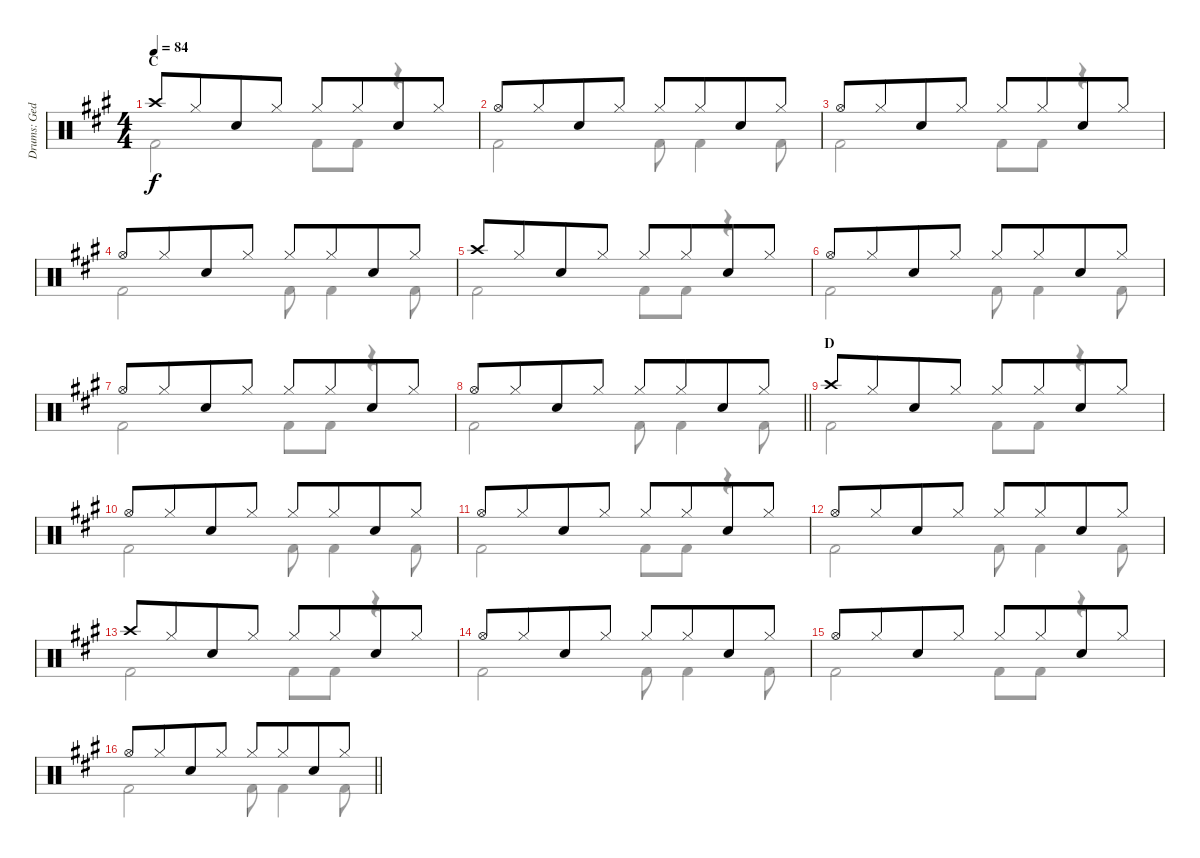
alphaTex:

\track ("Drums: Ged Lynch" "Drums: Ged") {instrument percussion}
\staff {score}
\articulation defaults
\voice
\ts (4 4)
\section ("" "C")
\tempo 84
\clef neutral
\ks a "Crash high (hit)".8{dy f} "Hi-Hat (closed)".8{beam merge} "Electric Snare (hit)".8 "Hi-Hat (closed)".8 "Hi-Hat (closed)".8 "Hi-Hat (closed)".8{beam merge} "Electric Snare (hit)".8 "Hi-Hat (closed)".8
|
"Hi-Hat (open)".8 "Hi-Hat (closed)".8{beam merge} "Electric Snare (hit)".8 "Hi-Hat (closed)".8 "Hi-Hat (closed)".8 "Hi-Hat (closed)".8{beam merge} "Electric Snare (hit)".8 "Hi-Hat (closed)".8 |
"Hi-Hat (open)".8 "Hi-Hat (closed)".8{beam merge} "Electric Snare (hit)".8 "Hi-Hat (closed)".8 "Hi-Hat (closed)".8 "Hi-Hat (closed)".8{beam merge} "Electric Snare (hit)".8 "Hi-Hat (closed)".8 |
"Hi-Hat (open)".8 "Hi-Hat (closed)".8{beam merge} "Electric Snare (hit)".8 "Hi-Hat (closed)".8 "Hi-Hat (closed)".8 "Hi-Hat (closed)".8{beam merge} "Electric Snare (hit)".8 "Hi-Hat (closed)".8 |
"Crash high (hit)".8 "Hi-Hat (closed)".8{beam merge} "Electric Snare (hit)".8 "Hi-Hat (closed)".8 "Hi-Hat (closed)".8 "Hi-Hat (closed)".8{beam merge} "Electric Snare (hit)".8 "Hi-Hat (closed)".8 |
"Hi-Hat (open)".8 "Hi-Hat (closed)".8{beam merge} "Electric Snare (hit)".8 "Hi-Hat (closed)".8 "Hi-Hat (closed)".8 "Hi-Hat (closed)".8{beam merge} "Electric Snare (hit)".8 "Hi-Hat (closed)".8 |
"Hi-Hat (open)".8 "Hi-Hat (closed)".8{beam merge} "Electric Snare (hit)".8 "Hi-Hat (closed)".8 "Hi-Hat (closed)".8 "Hi-Hat (closed)".8{beam merge} "Electric Snare (hit)".8 "Hi-Hat (closed)".8 |
\barLineRight lightlight "Hi-Hat (open)".8 "Hi-Hat (closed)".8{beam merge} "Electric Snare (hit)".8 "Hi-Hat (closed)".8 "Hi-Hat (closed)".8 "Hi-Hat (closed)".8{beam merge} "Electric Snare (hit)".8 "Hi-Hat (closed)".8
|
\section ("" "D")
"Crash high (hit)".8 "Hi-Hat (closed)".8{beam merge} "Electric Snare (hit)".8 "Hi-Hat (closed)".8 "Hi-Hat (closed)".8 "Hi-Hat (closed)".8{beam merge} "Electric Snare (hit)".8 "Hi-Hat (closed)".8 |
"Hi-Hat (open)".8 "Hi-Hat (closed)".8{beam merge} "Electric Snare (hit)".8 "Hi-Hat (closed)".8 "Hi-Hat (closed)".8 "Hi-Hat (closed)".8{beam merge} "Electric Snare (hit)".8 "Hi-Hat (closed)".8 |
"Hi-Hat (open)".8 "Hi-Hat (closed)".8{beam merge} "Electric Snare (hit)".8 "Hi-Hat (closed)".8 "Hi-Hat (closed)".8 "Hi-Hat (closed)".8{beam merge} "Electric Snare (hit)".8 "Hi-Hat (closed)".8 |
"Hi-Hat (open)".8 "Hi-Hat (closed)".8{beam merge} "Electric Snare (hit)".8 "Hi-Hat (closed)".8 "Hi-Hat (closed)".8 "Hi-Hat (closed)".8{beam merge} "Electric Snare (hit)".8 "Hi-Hat (closed)".8 |
"Crash high (hit)".8 "Hi-Hat (closed)".8{beam merge} "Electric Snare (hit)".8 "Hi-Hat (closed)".8 "Hi-Hat (closed)".8 "Hi-Hat (closed)".8{beam merge} "Electric Snare (hit)".8 "Hi-Hat (closed)".8 |
"Hi-Hat (open)".8 "Hi-Hat (closed)".8{beam merge} "Electric Snare (hit)".8 "Hi-Hat (closed)".8 "Hi-Hat (closed)".8 "Hi-Hat (closed)".8{beam merge} "Electric Snare (hit)".8 "Hi-Hat (closed)".8 |
"Hi-Hat (open)".8 "Hi-Hat (closed)".8{beam merge} "Electric Snare (hit)".8 "Hi-Hat (closed)".8 "Hi-Hat (closed)".8 "Hi-Hat (closed)".8{beam merge} "Electric Snare (hit)".8 "Hi-Hat (closed)".8 |
\barLineRight lightlight "Hi-Hat (open)".8 "Hi-Hat (closed)".8{beam merge} "Electric Snare (hit)".8 "Hi-Hat (closed)".8 "Hi-Hat (closed)".8 "Hi-Hat (closed)".8{beam merge} "Electric Snare (hit)".8 "Hi-Hat (closed)".8
\voice
\clef neutral
\ottava regular
\simile none
\ks a "Kick (hit) 2".2{dy f} "Kick (hit) 2".8 "Kick (hit) 2".8
r.4 |
"Kick (hit) 2".2 "Kick (hit) 2".8 "Kick (hit) 2".4 "Kick (hit) 2".8 |
"Kick (hit) 2".2 "Kick (hit) 2".8 "Kick (hit) 2".8 r.4 |
"Kick (hit) 2".2 "Kick (hit) 2".8 "Kick (hit) 2".4 "Kick (hit) 2".8 |
"Kick (hit) 2".2 "Kick (hit) 2".8 "Kick (hit) 2".8 r.4 |
"Kick (hit) 2".2 "Kick (hit) 2".8 "Kick (hit) 2".4 "Kick (hit) 2".8 |
"Kick (hit) 2".2 "Kick (hit) 2".8 "Kick (hit) 2".8 r.4 |
\barLineRight lightlight "Kick (hit) 2".2 "Kick (hit) 2".8 "Kick (hit) 2".4 "Kick (hit) 2".8
|
"Kick (hit) 2".2 "Kick (hit) 2".8 "Kick (hit) 2".8 r.4 |
"Kick (hit) 2".2 "Kick (hit) 2".8 "Kick (hit) 2".4 "Kick (hit) 2".8 |
"Kick (hit) 2".2 "Kick (hit) 2".8 "Kick (hit) 2".8 r.4 |
"Kick (hit) 2".2 "Kick (hit) 2".8 "Kick (hit) 2".4 "Kick (hit) 2".8 |
"Kick (hit) 2".2 "Kick (hit) 2".8 "Kick (hit) 2".8 r.4 |
"Kick (hit) 2".2 "Kick (hit) 2".8 "Kick (hit) 2".4 "Kick (hit) 2".8 |
"Kick (hit) 2".2 "Kick (hit) 2".8 "Kick (hit) 2".8 r.4 |
\barLineRight lightlight "Kick (hit) 2".2 "Kick (hit) 2".8 "Kick (hit) 2".4 "Kick (hit) 2".8
